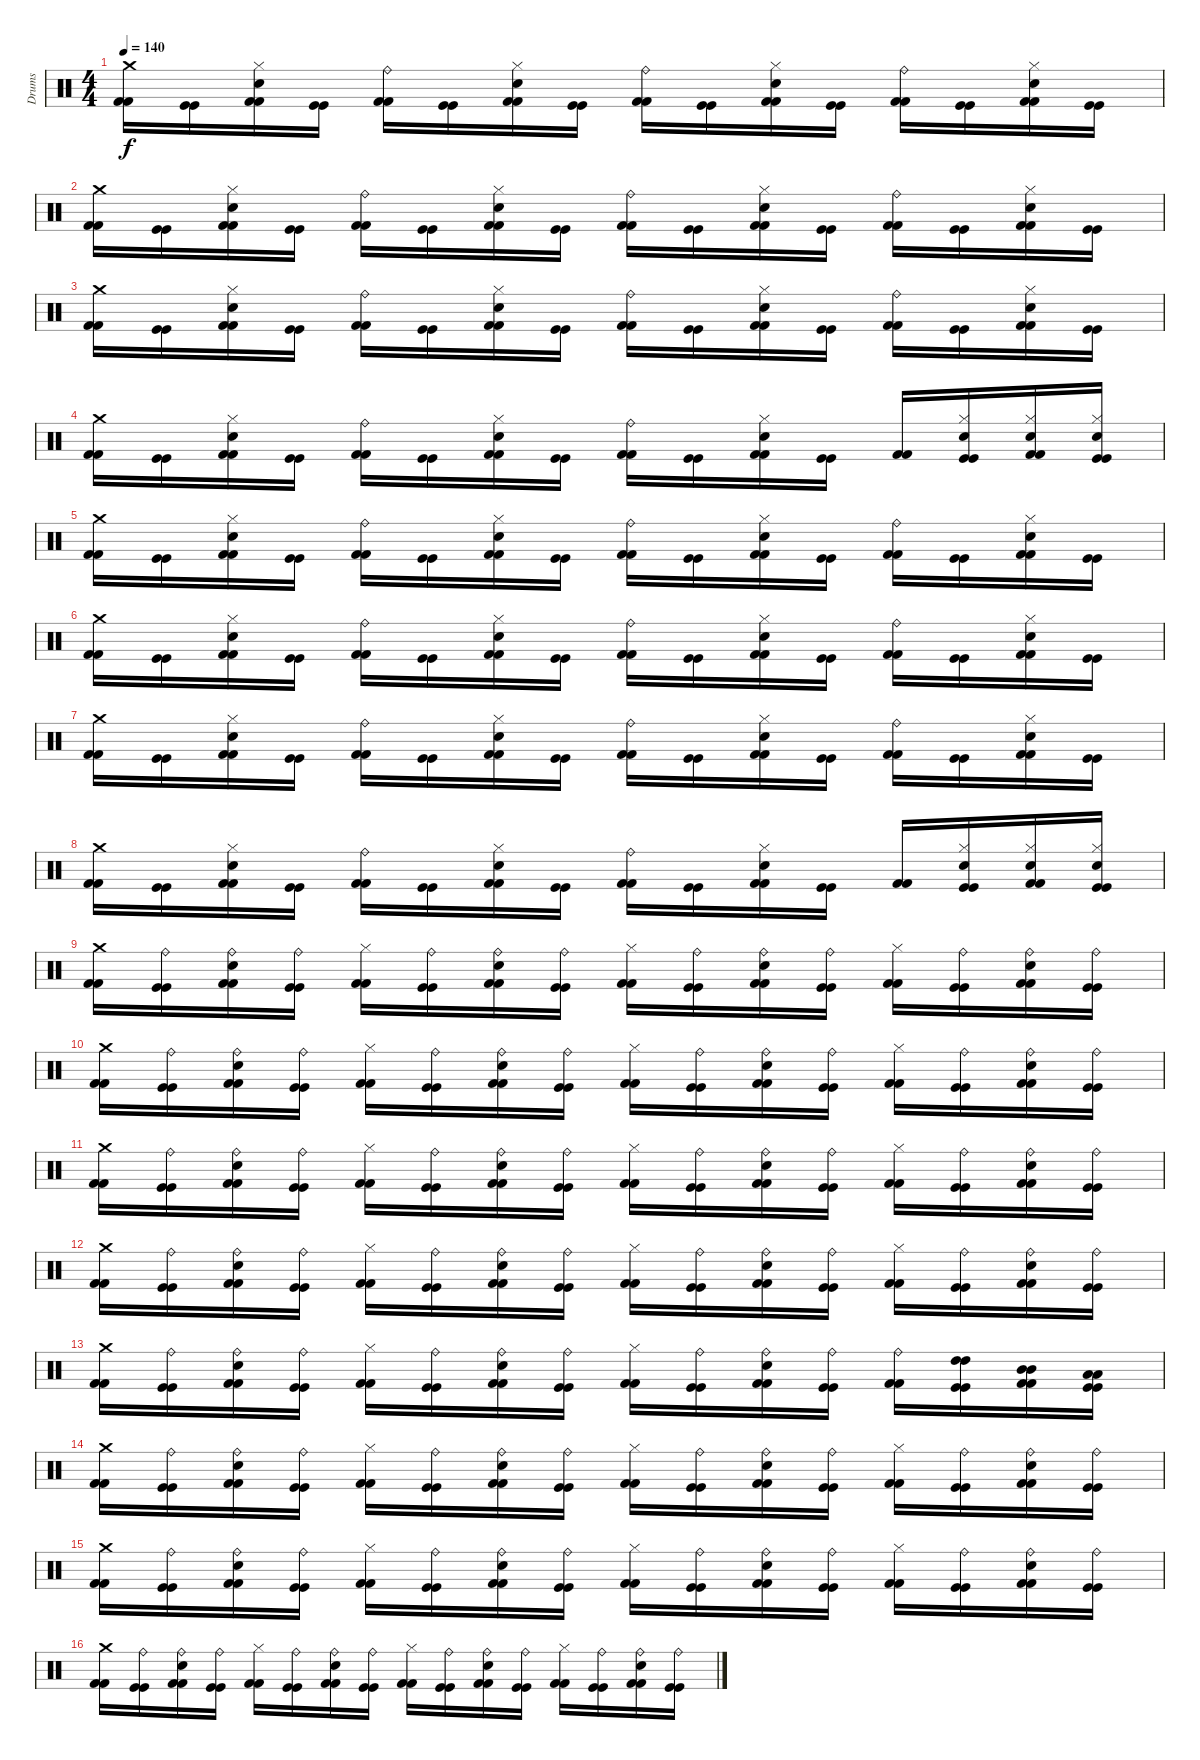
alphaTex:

\track ("Drums" "Drums") {instrument percussion}
\staff {score}
\articulation defaults
\ts (4 4)
\tempo 140
\clef neutral
\ks c
("Crash medium (hit)" "Kick (hit) 2" "Kick (hit) 2").16{dy f} ("Kick (hit)" "Kick (hit)").16 ("Hi-Hat (closed)" "Snare (hit) 2" "Kick (hit) 2" "Kick (hit) 2").16 ("Kick (hit)" "Kick (hit)").16 ("Ride (bell)" "Kick (hit) 2" "Kick (hit) 2").16 ("Kick (hit)" "Kick (hit)").16 ("Hi-Hat (closed)" "Snare (hit) 2" "Kick (hit) 2" "Kick (hit) 2").16 ("Kick (hit)" "Kick (hit)").16 ("Ride (bell)" "Kick (hit) 2" "Kick (hit) 2").16 ("Kick (hit)" "Kick (hit)").16 ("Hi-Hat (closed)" "Snare (hit) 2" "Kick (hit) 2" "Kick (hit) 2").16 ("Kick (hit)" "Kick (hit)").16 ("Ride (bell)" "Kick (hit) 2" "Kick (hit) 2").16 ("Kick (hit)" "Kick (hit)").16 ("Hi-Hat (closed)" "Snare (hit) 2" "Kick (hit) 2" "Kick (hit) 2").16 ("Kick (hit)" "Kick (hit)").16 |
("Crash medium (hit)" "Kick (hit) 2" "Kick (hit) 2").16 ("Kick (hit)" "Kick (hit)").16 ("Hi-Hat (closed)" "Snare (hit) 2" "Kick (hit) 2" "Kick (hit) 2").16 ("Kick (hit)" "Kick (hit)").16 ("Ride (bell)" "Kick (hit) 2" "Kick (hit) 2").16 ("Kick (hit)" "Kick (hit)").16 ("Hi-Hat (closed)" "Snare (hit) 2" "Kick (hit) 2" "Kick (hit) 2").16 ("Kick (hit)" "Kick (hit)").16 ("Ride (bell)" "Kick (hit) 2" "Kick (hit) 2").16 ("Kick (hit)" "Kick (hit)").16 ("Hi-Hat (closed)" "Snare (hit) 2" "Kick (hit) 2" "Kick (hit) 2").16 ("Kick (hit)" "Kick (hit)").16 ("Ride (bell)" "Kick (hit) 2" "Kick (hit) 2").16 ("Kick (hit)" "Kick (hit)").16 ("Hi-Hat (closed)" "Snare (hit) 2" "Kick (hit) 2" "Kick (hit) 2").16 ("Kick (hit)" "Kick (hit)").16 |
("Crash medium (hit)" "Kick (hit) 2" "Kick (hit) 2").16 ("Kick (hit)" "Kick (hit)").16 ("Hi-Hat (closed)" "Snare (hit) 2" "Kick (hit) 2" "Kick (hit) 2").16 ("Kick (hit)" "Kick (hit)").16 ("Ride (bell)" "Kick (hit) 2" "Kick (hit) 2").16 ("Kick (hit)" "Kick (hit)").16 ("Hi-Hat (closed)" "Snare (hit) 2" "Kick (hit) 2" "Kick (hit) 2").16 ("Kick (hit)" "Kick (hit)").16 ("Ride (bell)" "Kick (hit) 2" "Kick (hit) 2").16 ("Kick (hit)" "Kick (hit)").16 ("Hi-Hat (closed)" "Snare (hit) 2" "Kick (hit) 2" "Kick (hit) 2").16 ("Kick (hit)" "Kick (hit)").16 ("Ride (bell)" "Kick (hit) 2" "Kick (hit) 2").16 ("Kick (hit)" "Kick (hit)").16 ("Hi-Hat (closed)" "Snare (hit) 2" "Kick (hit) 2" "Kick (hit) 2").16 ("Kick (hit)" "Kick (hit)").16 |
("Crash medium (hit)" "Kick (hit) 2" "Kick (hit) 2").16 ("Kick (hit)" "Kick (hit)").16 ("Hi-Hat (closed)" "Snare (hit) 2" "Kick (hit) 2" "Kick (hit) 2").16 ("Kick (hit)" "Kick (hit)").16 ("Ride (bell)" "Kick (hit) 2" "Kick (hit) 2").16 ("Kick (hit)" "Kick (hit)").16 ("Hi-Hat (closed)" "Snare (hit) 2" "Kick (hit) 2" "Kick (hit) 2").16 ("Kick (hit)" "Kick (hit)").16 ("Ride (bell)" "Kick (hit) 2" "Kick (hit) 2").16 ("Kick (hit)" "Kick (hit)").16 ("Hi-Hat (closed)" "Snare (hit) 2" "Kick (hit) 2" "Kick (hit) 2").16 ("Kick (hit)" "Kick (hit)").16 ("Kick (hit) 2" "Kick (hit) 2").16 ("Hi-Hat (closed)" "Snare (hit) 2" "Kick (hit)" "Kick (hit)").16 ("Hi-Hat (closed)" "Snare (hit) 2" "Kick (hit) 2" "Kick (hit) 2").16 ("Hi-Hat (closed)" "Snare (hit) 2" "Kick (hit)" "Kick (hit)").16 |
("Crash medium (hit)" "Kick (hit) 2" "Kick (hit) 2").16 ("Kick (hit)" "Kick (hit)").16 ("Hi-Hat (closed)" "Snare (hit) 2" "Kick (hit) 2" "Kick (hit) 2").16 ("Kick (hit)" "Kick (hit)").16 ("Ride (bell)" "Kick (hit) 2" "Kick (hit) 2").16 ("Kick (hit)" "Kick (hit)").16 ("Hi-Hat (closed)" "Snare (hit) 2" "Kick (hit) 2" "Kick (hit) 2").16 ("Kick (hit)" "Kick (hit)").16 ("Ride (bell)" "Kick (hit) 2" "Kick (hit) 2").16 ("Kick (hit)" "Kick (hit)").16 ("Hi-Hat (closed)" "Snare (hit) 2" "Kick (hit) 2" "Kick (hit) 2").16 ("Kick (hit)" "Kick (hit)").16 ("Ride (bell)" "Kick (hit) 2" "Kick (hit) 2").16 ("Kick (hit)" "Kick (hit)").16 ("Hi-Hat (closed)" "Snare (hit) 2" "Kick (hit) 2" "Kick (hit) 2").16 ("Kick (hit)" "Kick (hit)").16 |
("Crash medium (hit)" "Kick (hit) 2" "Kick (hit) 2").16 ("Kick (hit)" "Kick (hit)").16 ("Hi-Hat (closed)" "Snare (hit) 2" "Kick (hit) 2" "Kick (hit) 2").16 ("Kick (hit)" "Kick (hit)").16 ("Ride (bell)" "Kick (hit) 2" "Kick (hit) 2").16 ("Kick (hit)" "Kick (hit)").16 ("Hi-Hat (closed)" "Snare (hit) 2" "Kick (hit) 2" "Kick (hit) 2").16 ("Kick (hit)" "Kick (hit)").16 ("Ride (bell)" "Kick (hit) 2" "Kick (hit) 2").16 ("Kick (hit)" "Kick (hit)").16 ("Hi-Hat (closed)" "Snare (hit) 2" "Kick (hit) 2" "Kick (hit) 2").16 ("Kick (hit)" "Kick (hit)").16 ("Ride (bell)" "Kick (hit) 2" "Kick (hit) 2").16 ("Kick (hit)" "Kick (hit)").16 ("Hi-Hat (closed)" "Snare (hit) 2" "Kick (hit) 2" "Kick (hit) 2").16 ("Kick (hit)" "Kick (hit)").16 |
("Crash medium (hit)" "Kick (hit) 2" "Kick (hit) 2").16 ("Kick (hit)" "Kick (hit)").16 ("Hi-Hat (closed)" "Snare (hit) 2" "Kick (hit) 2" "Kick (hit) 2").16 ("Kick (hit)" "Kick (hit)").16 ("Ride (bell)" "Kick (hit) 2" "Kick (hit) 2").16 ("Kick (hit)" "Kick (hit)").16 ("Hi-Hat (closed)" "Snare (hit) 2" "Kick (hit) 2" "Kick (hit) 2").16 ("Kick (hit)" "Kick (hit)").16 ("Ride (bell)" "Kick (hit) 2" "Kick (hit) 2").16 ("Kick (hit)" "Kick (hit)").16 ("Hi-Hat (closed)" "Snare (hit) 2" "Kick (hit) 2" "Kick (hit) 2").16 ("Kick (hit)" "Kick (hit)").16 ("Ride (bell)" "Kick (hit) 2" "Kick (hit) 2").16 ("Kick (hit)" "Kick (hit)").16 ("Hi-Hat (closed)" "Snare (hit) 2" "Kick (hit) 2" "Kick (hit) 2").16 ("Kick (hit)" "Kick (hit)").16 |
("Crash medium (hit)" "Kick (hit) 2" "Kick (hit) 2").16 ("Kick (hit)" "Kick (hit)").16 ("Hi-Hat (closed)" "Snare (hit) 2" "Kick (hit) 2" "Kick (hit) 2").16 ("Kick (hit)" "Kick (hit)").16 ("Ride (bell)" "Kick (hit) 2" "Kick (hit) 2").16 ("Kick (hit)" "Kick (hit)").16 ("Hi-Hat (closed)" "Snare (hit) 2" "Kick (hit) 2" "Kick (hit) 2").16 ("Kick (hit)" "Kick (hit)").16 ("Ride (bell)" "Kick (hit) 2" "Kick (hit) 2").16 ("Kick (hit)" "Kick (hit)").16 ("Hi-Hat (closed)" "Snare (hit) 2" "Kick (hit) 2" "Kick (hit) 2").16 ("Kick (hit)" "Kick (hit)").16 ("Kick (hit) 2" "Kick (hit) 2").16 ("Hi-Hat (closed)" "Snare (hit) 2" "Kick (hit)" "Kick (hit)").16 ("Hi-Hat (closed)" "Snare (hit) 2" "Kick (hit) 2" "Kick (hit) 2").16 ("Hi-Hat (closed)" "Snare (hit) 2" "Kick (hit)" "Kick (hit)").16 |
("Crash medium (hit)" "Kick (hit) 2" "Kick (hit) 2").16 ("Ride (bell)" "Kick (hit)" "Kick (hit)").16 ("Ride (bell)" "Snare (hit) 2" "Kick (hit) 2" "Kick (hit) 2").16 ("Ride (bell)" "Kick (hit)" "Kick (hit)").16 ("Hi-Hat (closed)" "Kick (hit) 2" "Kick (hit) 2").16 ("Ride (bell)" "Kick (hit)" "Kick (hit)").16 ("Ride (bell)" "Snare (hit) 2" "Kick (hit) 2" "Kick (hit) 2").16 ("Ride (bell)" "Kick (hit)" "Kick (hit)").16 ("Hi-Hat (closed)" "Kick (hit) 2" "Kick (hit) 2").16 ("Ride (bell)" "Kick (hit)" "Kick (hit)").16 ("Ride (bell)" "Snare (hit) 2" "Kick (hit) 2" "Kick (hit) 2").16 ("Ride (bell)" "Kick (hit)" "Kick (hit)").16 ("Hi-Hat (closed)" "Kick (hit) 2" "Kick (hit) 2").16 ("Ride (bell)" "Kick (hit)" "Kick (hit)").16 ("Ride (bell)" "Snare (hit) 2" "Kick (hit) 2" "Kick (hit) 2").16 ("Ride (bell)" "Kick (hit)" "Kick (hit)").16 |
("Crash medium (hit)" "Kick (hit) 2" "Kick (hit) 2").16 ("Ride (bell)" "Kick (hit)" "Kick (hit)").16 ("Ride (bell)" "Snare (hit) 2" "Kick (hit) 2" "Kick (hit) 2").16 ("Ride (bell)" "Kick (hit)" "Kick (hit)").16 ("Hi-Hat (closed)" "Kick (hit) 2" "Kick (hit) 2").16 ("Ride (bell)" "Kick (hit)" "Kick (hit)").16 ("Ride (bell)" "Snare (hit) 2" "Kick (hit) 2" "Kick (hit) 2").16 ("Ride (bell)" "Kick (hit)" "Kick (hit)").16 ("Hi-Hat (closed)" "Kick (hit) 2" "Kick (hit) 2").16 ("Ride (bell)" "Kick (hit)" "Kick (hit)").16 ("Ride (bell)" "Snare (hit) 2" "Kick (hit) 2" "Kick (hit) 2").16 ("Ride (bell)" "Kick (hit)" "Kick (hit)").16 ("Hi-Hat (closed)" "Kick (hit) 2" "Kick (hit) 2").16 ("Ride (bell)" "Kick (hit)" "Kick (hit)").16 ("Ride (bell)" "Snare (hit) 2" "Kick (hit) 2" "Kick (hit) 2").16 ("Ride (bell)" "Kick (hit)" "Kick (hit)").16 |
("Crash medium (hit)" "Kick (hit) 2" "Kick (hit) 2").16 ("Ride (bell)" "Kick (hit)" "Kick (hit)").16 ("Ride (bell)" "Snare (hit) 2" "Kick (hit) 2" "Kick (hit) 2").16 ("Ride (bell)" "Kick (hit)" "Kick (hit)").16 ("Hi-Hat (closed)" "Kick (hit) 2" "Kick (hit) 2").16 ("Ride (bell)" "Kick (hit)" "Kick (hit)").16 ("Ride (bell)" "Snare (hit) 2" "Kick (hit) 2" "Kick (hit) 2").16 ("Ride (bell)" "Kick (hit)" "Kick (hit)").16 ("Hi-Hat (closed)" "Kick (hit) 2" "Kick (hit) 2").16 ("Ride (bell)" "Kick (hit)" "Kick (hit)").16 ("Ride (bell)" "Snare (hit) 2" "Kick (hit) 2" "Kick (hit) 2").16 ("Ride (bell)" "Kick (hit)" "Kick (hit)").16 ("Hi-Hat (closed)" "Kick (hit) 2" "Kick (hit) 2").16 ("Ride (bell)" "Kick (hit)" "Kick (hit)").16 ("Ride (bell)" "Snare (hit) 2" "Kick (hit) 2" "Kick (hit) 2").16 ("Ride (bell)" "Kick (hit)" "Kick (hit)").16 |
("Crash medium (hit)" "Kick (hit) 2" "Kick (hit) 2").16 ("Ride (bell)" "Kick (hit)" "Kick (hit)").16 ("Ride (bell)" "Snare (hit) 2" "Kick (hit) 2" "Kick (hit) 2").16 ("Ride (bell)" "Kick (hit)" "Kick (hit)").16 ("Hi-Hat (closed)" "Kick (hit) 2" "Kick (hit) 2").16 ("Ride (bell)" "Kick (hit)" "Kick (hit)").16 ("Ride (bell)" "Snare (hit) 2" "Kick (hit) 2" "Kick (hit) 2").16 ("Ride (bell)" "Kick (hit)" "Kick (hit)").16 ("Hi-Hat (closed)" "Kick (hit) 2" "Kick (hit) 2").16 ("Ride (bell)" "Kick (hit)" "Kick (hit)").16 ("Ride (bell)" "Snare (hit) 2" "Kick (hit) 2" "Kick (hit) 2").16 ("Ride (bell)" "Kick (hit)" "Kick (hit)").16 ("Hi-Hat (closed)" "Kick (hit) 2" "Kick (hit) 2").16 ("Ride (bell)" "Kick (hit)" "Kick (hit)").16 ("Ride (bell)" "Snare (hit) 2" "Kick (hit) 2" "Kick (hit) 2").16 ("Ride (bell)" "Kick (hit)" "Kick (hit)").16 |
("Crash medium (hit)" "Kick (hit) 2" "Kick (hit) 2").16 ("Ride (bell)" "Kick (hit)" "Kick (hit)").16 ("Ride (bell)" "Snare (hit) 2" "Kick (hit) 2" "Kick (hit) 2").16 ("Ride (bell)" "Kick (hit)" "Kick (hit)").16 ("Hi-Hat (closed)" "Kick (hit) 2" "Kick (hit) 2").16 ("Ride (bell)" "Kick (hit)" "Kick (hit)").16 ("Ride (bell)" "Snare (hit) 2" "Kick (hit) 2" "Kick (hit) 2").16 ("Ride (bell)" "Kick (hit)" "Kick (hit)").16 ("Hi-Hat (closed)" "Kick (hit) 2" "Kick (hit) 2").16 ("Ride (bell)" "Kick (hit)" "Kick (hit)").16 ("Ride (bell)" "Snare (hit) 2" "Kick (hit) 2" "Kick (hit) 2").16 ("Ride (bell)" "Kick (hit)" "Kick (hit)").16 ("Ride (bell)" "Kick (hit) 2" "Kick (hit) 2").16 ("High Tom (hit)" "High Tom (hit)" "Kick (hit)" "Kick (hit)").16 ("Mid Tom (hit)" "Mid Tom (hit)" "Kick (hit) 2" "Kick (hit) 2").16 ("Low Tom (hit)" "Low Tom (hit)" "Kick (hit)" "Kick (hit)").16 |
("Crash medium (hit)" "Kick (hit) 2" "Kick (hit) 2").16 ("Ride (bell)" "Kick (hit)" "Kick (hit)").16 ("Ride (bell)" "Snare (hit) 2" "Kick (hit) 2" "Kick (hit) 2").16 ("Ride (bell)" "Kick (hit)" "Kick (hit)").16 ("Hi-Hat (closed)" "Kick (hit) 2" "Kick (hit) 2").16 ("Ride (bell)" "Kick (hit)" "Kick (hit)").16 ("Ride (bell)" "Snare (hit) 2" "Kick (hit) 2" "Kick (hit) 2").16 ("Ride (bell)" "Kick (hit)" "Kick (hit)").16 ("Hi-Hat (closed)" "Kick (hit) 2" "Kick (hit) 2").16 ("Ride (bell)" "Kick (hit)" "Kick (hit)").16 ("Ride (bell)" "Snare (hit) 2" "Kick (hit) 2" "Kick (hit) 2").16 ("Ride (bell)" "Kick (hit)" "Kick (hit)").16 ("Hi-Hat (closed)" "Kick (hit) 2" "Kick (hit) 2").16 ("Ride (bell)" "Kick (hit)" "Kick (hit)").16 ("Ride (bell)" "Snare (hit) 2" "Kick (hit) 2" "Kick (hit) 2").16 ("Ride (bell)" "Kick (hit)" "Kick (hit)").16 |
("Crash medium (hit)" "Kick (hit) 2" "Kick (hit) 2").16 ("Ride (bell)" "Kick (hit)" "Kick (hit)").16 ("Ride (bell)" "Snare (hit) 2" "Kick (hit) 2" "Kick (hit) 2").16 ("Ride (bell)" "Kick (hit)" "Kick (hit)").16 ("Hi-Hat (closed)" "Kick (hit) 2" "Kick (hit) 2").16 ("Ride (bell)" "Kick (hit)" "Kick (hit)").16 ("Ride (bell)" "Snare (hit) 2" "Kick (hit) 2" "Kick (hit) 2").16 ("Ride (bell)" "Kick (hit)" "Kick (hit)").16 ("Hi-Hat (closed)" "Kick (hit) 2" "Kick (hit) 2").16 ("Ride (bell)" "Kick (hit)" "Kick (hit)").16 ("Ride (bell)" "Snare (hit) 2" "Kick (hit) 2" "Kick (hit) 2").16 ("Ride (bell)" "Kick (hit)" "Kick (hit)").16 ("Hi-Hat (closed)" "Kick (hit) 2" "Kick (hit) 2").16 ("Ride (bell)" "Kick (hit)" "Kick (hit)").16 ("Ride (bell)" "Snare (hit) 2" "Kick (hit) 2" "Kick (hit) 2").16 ("Ride (bell)" "Kick (hit)" "Kick (hit)").16 |
("Crash medium (hit)" "Kick (hit) 2" "Kick (hit) 2").16 ("Ride (bell)" "Kick (hit)" "Kick (hit)").16 ("Ride (bell)" "Snare (hit) 2" "Kick (hit) 2" "Kick (hit) 2").16 ("Ride (bell)" "Kick (hit)" "Kick (hit)").16 ("Hi-Hat (closed)" "Kick (hit) 2" "Kick (hit) 2").16 ("Ride (bell)" "Kick (hit)" "Kick (hit)").16 ("Ride (bell)" "Snare (hit) 2" "Kick (hit) 2" "Kick (hit) 2").16 ("Ride (bell)" "Kick (hit)" "Kick (hit)").16 ("Hi-Hat (closed)" "Kick (hit) 2" "Kick (hit) 2").16 ("Ride (bell)" "Kick (hit)" "Kick (hit)").16 ("Ride (bell)" "Snare (hit) 2" "Kick (hit) 2" "Kick (hit) 2").16 ("Ride (bell)" "Kick (hit)" "Kick (hit)").16 ("Hi-Hat (closed)" "Kick (hit) 2" "Kick (hit) 2").16 ("Ride (bell)" "Kick (hit)" "Kick (hit)").16 ("Ride (bell)" "Snare (hit) 2" "Kick (hit) 2" "Kick (hit) 2").16 ("Ride (bell)" "Kick (hit)" "Kick (hit)").16
